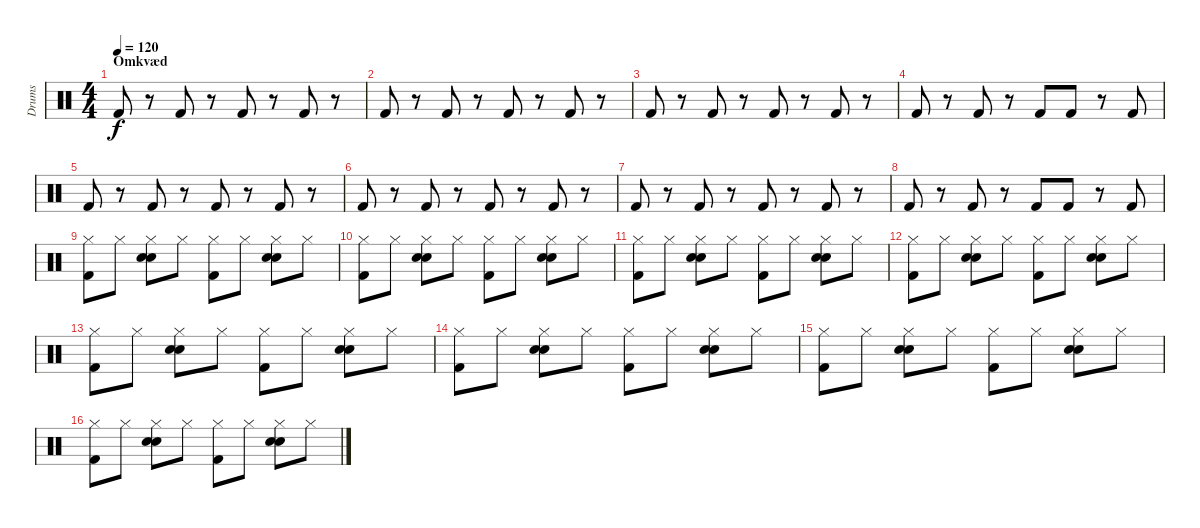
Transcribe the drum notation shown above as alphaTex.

\track ("Drums" "Drums") {instrument percussion}
\staff {score}
\articulation defaults
\ts (4 4)
\section ("" "Omkvæd")
\tempo 120
\clef neutral
\ks c "Kick (hit) 2".8{dy f}
r.8 "Kick (hit) 2".8 r.8 "Kick (hit) 2".8 r.8 "Kick (hit) 2".8 r.8 |
"Kick (hit) 2".8 r.8 "Kick (hit) 2".8 r.8 "Kick (hit) 2".8 r.8 "Kick (hit) 2".8 r.8 |
"Kick (hit) 2".8 r.8 "Kick (hit) 2".8 r.8 "Kick (hit) 2".8 r.8 "Kick (hit) 2".8 r.8 |
"Kick (hit) 2".8 r.8 "Kick (hit) 2".8 r.8 "Kick (hit) 2".8 "Kick (hit) 2".8 r.8 "Kick (hit) 2".8 |
"Kick (hit) 2".8 r.8 "Kick (hit) 2".8 r.8 "Kick (hit) 2".8 r.8 "Kick (hit) 2".8 r.8 |
"Kick (hit) 2".8 r.8 "Kick (hit) 2".8 r.8 "Kick (hit) 2".8 r.8 "Kick (hit) 2".8 r.8 |
"Kick (hit) 2".8 r.8 "Kick (hit) 2".8 r.8 "Kick (hit) 2".8 r.8 "Kick (hit) 2".8 r.8 |
"Kick (hit) 2".8 r.8 "Kick (hit) 2".8 r.8 "Kick (hit) 2".8 "Kick (hit) 2".8 r.8 "Kick (hit) 2".8 |
("Hi-Hat (closed)" "Kick (hit) 2").8 "Hi-Hat (closed)".8 ("Hand Clap (hit)" "Hi-Hat (closed)" "Electric Snare (hit)").8 "Hi-Hat (closed)".8 ("Hi-Hat (closed)" "Kick (hit) 2").8 "Hi-Hat (closed)".8 ("Hand Clap (hit)" "Hi-Hat (closed)" "Electric Snare (hit)").8 "Hi-Hat (closed)".8 |
("Hi-Hat (closed)" "Kick (hit) 2").8 "Hi-Hat (closed)".8 ("Hand Clap (hit)" "Hi-Hat (closed)" "Electric Snare (hit)").8 "Hi-Hat (closed)".8 ("Hi-Hat (closed)" "Kick (hit) 2").8 "Hi-Hat (closed)".8 ("Hand Clap (hit)" "Hi-Hat (closed)" "Electric Snare (hit)").8 "Hi-Hat (closed)".8 |
("Hi-Hat (closed)" "Kick (hit) 2").8 "Hi-Hat (closed)".8 ("Hand Clap (hit)" "Hi-Hat (closed)" "Electric Snare (hit)").8 "Hi-Hat (closed)".8 ("Hi-Hat (closed)" "Kick (hit) 2").8 "Hi-Hat (closed)".8 ("Hand Clap (hit)" "Hi-Hat (closed)" "Electric Snare (hit)").8 "Hi-Hat (closed)".8 |
("Hi-Hat (closed)" "Kick (hit) 2").8 "Hi-Hat (closed)".8 ("Hand Clap (hit)" "Hi-Hat (closed)" "Electric Snare (hit)").8 "Hi-Hat (closed)".8 ("Hi-Hat (closed)" "Kick (hit) 2").8 "Hi-Hat (closed)".8 ("Hand Clap (hit)" "Hi-Hat (closed)" "Electric Snare (hit)").8 "Hi-Hat (closed)".8 |
("Hi-Hat (closed)" "Kick (hit) 2").8 "Hi-Hat (closed)".8 ("Hand Clap (hit)" "Hi-Hat (closed)" "Electric Snare (hit)").8 "Hi-Hat (closed)".8 ("Hi-Hat (closed)" "Kick (hit) 2").8 "Hi-Hat (closed)".8 ("Hand Clap (hit)" "Hi-Hat (closed)" "Electric Snare (hit)").8 "Hi-Hat (closed)".8 |
("Hi-Hat (closed)" "Kick (hit) 2").8 "Hi-Hat (closed)".8 ("Hand Clap (hit)" "Hi-Hat (closed)" "Electric Snare (hit)").8 "Hi-Hat (closed)".8 ("Hi-Hat (closed)" "Kick (hit) 2").8 "Hi-Hat (closed)".8 ("Hand Clap (hit)" "Hi-Hat (closed)" "Electric Snare (hit)").8 "Hi-Hat (closed)".8 |
("Hi-Hat (closed)" "Kick (hit) 2").8 "Hi-Hat (closed)".8 ("Hand Clap (hit)" "Hi-Hat (closed)" "Electric Snare (hit)").8 "Hi-Hat (closed)".8 ("Hi-Hat (closed)" "Kick (hit) 2").8 "Hi-Hat (closed)".8 ("Hand Clap (hit)" "Hi-Hat (closed)" "Electric Snare (hit)").8 "Hi-Hat (closed)".8 |
("Hi-Hat (closed)" "Kick (hit) 2").8 "Hi-Hat (closed)".8 ("Hand Clap (hit)" "Hi-Hat (closed)" "Electric Snare (hit)").8 "Hi-Hat (closed)".8 ("Hi-Hat (closed)" "Kick (hit) 2").8 "Hi-Hat (closed)".8 ("Hand Clap (hit)" "Hi-Hat (closed)" "Electric Snare (hit)").8 "Hi-Hat (closed)".8
